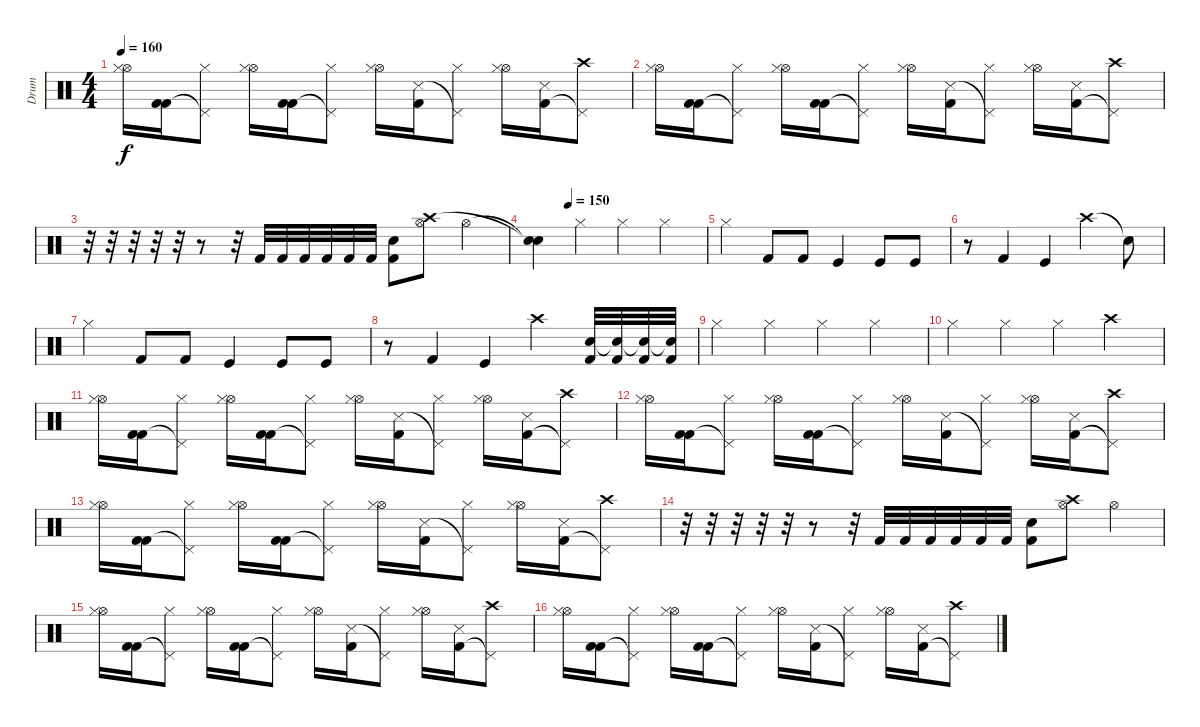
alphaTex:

\track ("Drum" "Drum") {instrument percussion}
\staff {score}
\articulation defaults
\ts (4 4)
\tempo 160
\clef neutral
\ks c
("Hi-Hat (open)" "Hi-Hat (closed)").16{dy f} ("Kick (hit) 2" "Kick (hit) 2").16 ("Hi-Hat (closed)" "Pedal Hi-Hat (hit)"{t}).8 ("Hi-Hat (open)" "Hi-Hat (closed)").16 ("Kick (hit) 2" "Kick (hit) 2").16 ("Hi-Hat (closed)" "Pedal Hi-Hat (hit)"{t}).8 ("Hi-Hat (open)" "Hi-Hat (closed)").16 ("Kick (hit) 2" "Snare (side stick) 3").16 ("Hi-Hat (closed)" "Pedal Hi-Hat (hit)"{t}).8 ("Hi-Hat (open)" "Hi-Hat (closed)").16 ("Snare (side stick) 3" "Kick (hit) 2").16 ("Crash high (hit)" "Pedal Hi-Hat (hit)"{t}).8 |
("Hi-Hat (open)" "Hi-Hat (closed)").16 ("Kick (hit) 2" "Kick (hit) 2").16 ("Hi-Hat (closed)" "Pedal Hi-Hat (hit)"{t}).8 ("Hi-Hat (open)" "Hi-Hat (closed)").16 ("Kick (hit) 2" "Kick (hit) 2").16 ("Hi-Hat (closed)" "Pedal Hi-Hat (hit)"{t}).8 ("Hi-Hat (open)" "Hi-Hat (closed)").16 ("Kick (hit) 2" "Snare (side stick) 3").16 ("Hi-Hat (closed)" "Pedal Hi-Hat (hit)"{t}).8 ("Hi-Hat (open)" "Hi-Hat (closed)").16 ("Snare (side stick) 3" "Kick (hit) 2").16 ("Crash high (hit)" "Pedal Hi-Hat (hit)"{t}).8 |
r.32 r.32 r.32 r.32 r.32 r.8 r.32 "Kick (hit) 2".32 "Kick (hit) 2".32 "Kick (hit) 2".32 "Kick (hit) 2".32 "Kick (hit) 2".32 "Kick (hit) 2".32 ("Snare (hit) 2" "Kick (hit) 2").8 ("Hi-Hat (open)" "Crash high (hit)").8 "Hi-Hat (open)".4 |
\tempo (150 0.20833333333333334)
("Snare (hit)"{t} "Snare (hit)"{t}).4 "Hi-Hat (closed)".4 "Hi-Hat (closed)".4 "Hi-Hat (closed)".4 |
"Hi-Hat (closed)".4 "Kick (hit) 2".8 "Kick (hit) 2".8 "Kick (hit)".4 "Kick (hit)".8 "Kick (hit)".8 |
r.8 "Kick (hit) 2".4 "Kick (hit)".4 "Crash high (hit)".4 "Snare (hit)"{t}.8 |
"Hi-Hat (closed)".4 "Kick (hit) 2".8 "Kick (hit) 2".8 "Kick (hit)".4 "Kick (hit)".8 "Kick (hit)".8 |
r.8 "Kick (hit) 2".4 "Kick (hit)".4 "Crash high (hit)".4 ("Kick (hit) 2" "Snare (hit)").32 ("Kick (hit) 2" "Snare (hit)"{t}).32 ("Kick (hit) 2" "Snare (hit)"{t}).32 ("Kick (hit) 2" "Snare (hit)"{t}).32 |
"Hi-Hat (closed)".4 "Hi-Hat (closed)".4 "Hi-Hat (closed)".4 "Hi-Hat (closed)".4 |
"Hi-Hat (closed)".4 "Hi-Hat (closed)".4 "Hi-Hat (closed)".4 "Crash high (hit)".4 |
("Hi-Hat (open)" "Hi-Hat (closed)").16 ("Kick (hit) 2" "Kick (hit) 2").16 ("Hi-Hat (closed)" "Pedal Hi-Hat (hit)"{t}).8 ("Hi-Hat (open)" "Hi-Hat (closed)").16 ("Kick (hit) 2" "Kick (hit) 2").16 ("Hi-Hat (closed)" "Pedal Hi-Hat (hit)"{t}).8 ("Hi-Hat (open)" "Hi-Hat (closed)").16 ("Kick (hit) 2" "Snare (side stick) 3").16 ("Hi-Hat (closed)" "Pedal Hi-Hat (hit)"{t}).8 ("Hi-Hat (open)" "Hi-Hat (closed)").16 ("Snare (side stick) 3" "Kick (hit) 2").16 ("Crash high (hit)" "Pedal Hi-Hat (hit)"{t}).8 |
("Hi-Hat (open)" "Hi-Hat (closed)").16 ("Kick (hit) 2" "Kick (hit) 2").16 ("Hi-Hat (closed)" "Pedal Hi-Hat (hit)"{t}).8 ("Hi-Hat (open)" "Hi-Hat (closed)").16 ("Kick (hit) 2" "Kick (hit) 2").16 ("Hi-Hat (closed)" "Pedal Hi-Hat (hit)"{t}).8 ("Hi-Hat (open)" "Hi-Hat (closed)").16 ("Kick (hit) 2" "Snare (side stick) 3").16 ("Hi-Hat (closed)" "Pedal Hi-Hat (hit)"{t}).8 ("Hi-Hat (open)" "Hi-Hat (closed)").16 ("Snare (side stick) 3" "Kick (hit) 2").16 ("Crash high (hit)" "Pedal Hi-Hat (hit)"{t}).8 |
("Hi-Hat (open)" "Hi-Hat (closed)").16 ("Kick (hit) 2" "Kick (hit) 2").16 ("Hi-Hat (closed)" "Pedal Hi-Hat (hit)"{t}).8 ("Hi-Hat (open)" "Hi-Hat (closed)").16 ("Kick (hit) 2" "Kick (hit) 2").16 ("Hi-Hat (closed)" "Pedal Hi-Hat (hit)"{t}).8 ("Hi-Hat (open)" "Hi-Hat (closed)").16 ("Kick (hit) 2" "Snare (side stick) 3").16 ("Hi-Hat (closed)" "Pedal Hi-Hat (hit)"{t}).8 ("Hi-Hat (open)" "Hi-Hat (closed)").16 ("Snare (side stick) 3" "Kick (hit) 2").16 ("Crash high (hit)" "Pedal Hi-Hat (hit)"{t}).8 |
r.32 r.32 r.32 r.32 r.32 r.8 r.32 "Kick (hit) 2".32 "Kick (hit) 2".32 "Kick (hit) 2".32 "Kick (hit) 2".32 "Kick (hit) 2".32 "Kick (hit) 2".32 ("Snare (hit) 2" "Kick (hit) 2").8 ("Hi-Hat (open)" "Crash high (hit)").8 "Hi-Hat (open)".4 |
("Hi-Hat (open)" "Hi-Hat (closed)").16 ("Kick (hit) 2" "Kick (hit) 2").16 ("Hi-Hat (closed)" "Pedal Hi-Hat (hit)"{t}).8 ("Hi-Hat (open)" "Hi-Hat (closed)").16 ("Kick (hit) 2" "Kick (hit) 2").16 ("Hi-Hat (closed)" "Pedal Hi-Hat (hit)"{t}).8 ("Hi-Hat (open)" "Hi-Hat (closed)").16 ("Kick (hit) 2" "Snare (side stick) 3").16 ("Hi-Hat (closed)" "Pedal Hi-Hat (hit)"{t}).8 ("Hi-Hat (open)" "Hi-Hat (closed)").16 ("Snare (side stick) 3" "Kick (hit) 2").16 ("Crash high (hit)" "Pedal Hi-Hat (hit)"{t}).8 |
("Hi-Hat (open)" "Hi-Hat (closed)").16 ("Kick (hit) 2" "Kick (hit) 2").16 ("Hi-Hat (closed)" "Pedal Hi-Hat (hit)"{t}).8 ("Hi-Hat (open)" "Hi-Hat (closed)").16 ("Kick (hit) 2" "Kick (hit) 2").16 ("Hi-Hat (closed)" "Pedal Hi-Hat (hit)"{t}).8 ("Hi-Hat (open)" "Hi-Hat (closed)").16 ("Kick (hit) 2" "Snare (side stick) 3").16 ("Hi-Hat (closed)" "Pedal Hi-Hat (hit)"{t}).8 ("Hi-Hat (open)" "Hi-Hat (closed)").16 ("Snare (side stick) 3" "Kick (hit) 2").16 ("Crash high (hit)" "Pedal Hi-Hat (hit)"{t}).8
